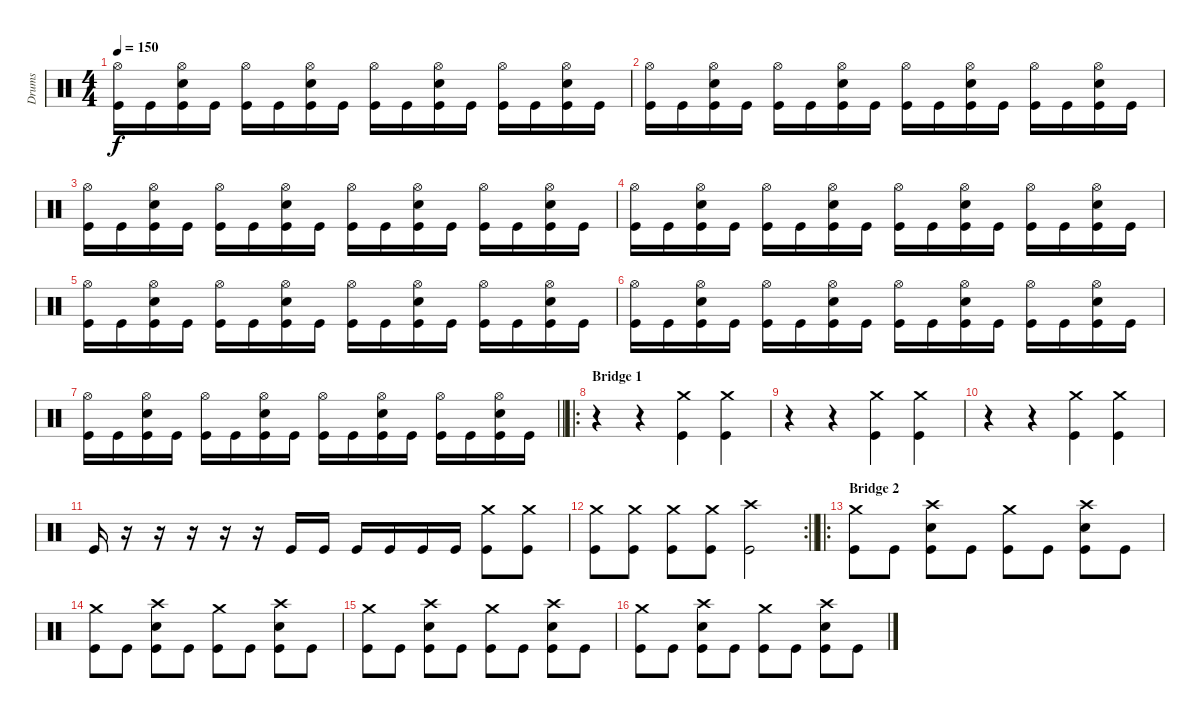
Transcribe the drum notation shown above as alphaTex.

\track ("Drums" "Drums") {instrument percussion}
\staff {score}
\articulation defaults
\ts (4 4)
\tempo 150
\clef neutral
\ks c
("Hi-Hat (open)" "Kick (hit)").16{dy f} "Kick (hit)".16 ("Hi-Hat (open)" "Snare (hit) 2" "Kick (hit)").16 "Kick (hit)".16 ("Hi-Hat (open)" "Kick (hit)").16 "Kick (hit)".16 ("Hi-Hat (open)" "Snare (hit) 2" "Kick (hit)").16 "Kick (hit)".16 ("Hi-Hat (open)" "Kick (hit)").16 "Kick (hit)".16 ("Hi-Hat (open)" "Snare (hit) 2" "Kick (hit)").16 "Kick (hit)".16 ("Hi-Hat (open)" "Kick (hit)").16 "Kick (hit)".16 ("Hi-Hat (open)" "Snare (hit) 2" "Kick (hit)").16 "Kick (hit)".16 |
("Hi-Hat (open)" "Kick (hit)").16 "Kick (hit)".16 ("Hi-Hat (open)" "Snare (hit) 2" "Kick (hit)").16 "Kick (hit)".16 ("Hi-Hat (open)" "Kick (hit)").16 "Kick (hit)".16 ("Hi-Hat (open)" "Snare (hit) 2" "Kick (hit)").16 "Kick (hit)".16 ("Hi-Hat (open)" "Kick (hit)").16 "Kick (hit)".16 ("Hi-Hat (open)" "Snare (hit) 2" "Kick (hit)").16 "Kick (hit)".16 ("Hi-Hat (open)" "Kick (hit)").16 "Kick (hit)".16 ("Hi-Hat (open)" "Snare (hit) 2" "Kick (hit)").16 "Kick (hit)".16 |
("Hi-Hat (open)" "Kick (hit)").16 "Kick (hit)".16 ("Hi-Hat (open)" "Snare (hit) 2" "Kick (hit)").16 "Kick (hit)".16 ("Hi-Hat (open)" "Kick (hit)").16 "Kick (hit)".16 ("Hi-Hat (open)" "Snare (hit) 2" "Kick (hit)").16 "Kick (hit)".16 ("Hi-Hat (open)" "Kick (hit)").16 "Kick (hit)".16 ("Hi-Hat (open)" "Snare (hit) 2" "Kick (hit)").16 "Kick (hit)".16 ("Hi-Hat (open)" "Kick (hit)").16 "Kick (hit)".16 ("Hi-Hat (open)" "Snare (hit) 2" "Kick (hit)").16 "Kick (hit)".16 |
("Hi-Hat (open)" "Kick (hit)").16 "Kick (hit)".16 ("Hi-Hat (open)" "Snare (hit) 2" "Kick (hit)").16 "Kick (hit)".16 ("Hi-Hat (open)" "Kick (hit)").16 "Kick (hit)".16 ("Hi-Hat (open)" "Snare (hit) 2" "Kick (hit)").16 "Kick (hit)".16 ("Hi-Hat (open)" "Kick (hit)").16 "Kick (hit)".16 ("Hi-Hat (open)" "Snare (hit) 2" "Kick (hit)").16 "Kick (hit)".16 ("Hi-Hat (open)" "Kick (hit)").16 "Kick (hit)".16 ("Hi-Hat (open)" "Snare (hit) 2" "Kick (hit)").16 "Kick (hit)".16 |
("Hi-Hat (open)" "Kick (hit)").16 "Kick (hit)".16 ("Hi-Hat (open)" "Snare (hit) 2" "Kick (hit)").16 "Kick (hit)".16 ("Hi-Hat (open)" "Kick (hit)").16 "Kick (hit)".16 ("Hi-Hat (open)" "Snare (hit) 2" "Kick (hit)").16 "Kick (hit)".16 ("Hi-Hat (open)" "Kick (hit)").16 "Kick (hit)".16 ("Hi-Hat (open)" "Snare (hit) 2" "Kick (hit)").16 "Kick (hit)".16 ("Hi-Hat (open)" "Kick (hit)").16 "Kick (hit)".16 ("Hi-Hat (open)" "Snare (hit) 2" "Kick (hit)").16 "Kick (hit)".16 |
("Hi-Hat (open)" "Kick (hit)").16 "Kick (hit)".16 ("Hi-Hat (open)" "Snare (hit) 2" "Kick (hit)").16 "Kick (hit)".16 ("Hi-Hat (open)" "Kick (hit)").16 "Kick (hit)".16 ("Hi-Hat (open)" "Snare (hit) 2" "Kick (hit)").16 "Kick (hit)".16 ("Hi-Hat (open)" "Kick (hit)").16 "Kick (hit)".16 ("Hi-Hat (open)" "Snare (hit) 2" "Kick (hit)").16 "Kick (hit)".16 ("Hi-Hat (open)" "Kick (hit)").16 "Kick (hit)".16 ("Hi-Hat (open)" "Snare (hit) 2" "Kick (hit)").16 "Kick (hit)".16 |
\barLineRight lightlight
("Hi-Hat (open)" "Kick (hit)").16 "Kick (hit)".16 ("Hi-Hat (open)" "Snare (hit) 2" "Kick (hit)").16 "Kick (hit)".16 ("Hi-Hat (open)" "Kick (hit)").16 "Kick (hit)".16 ("Hi-Hat (open)" "Snare (hit) 2" "Kick (hit)").16 "Kick (hit)".16 ("Hi-Hat (open)" "Kick (hit)").16 "Kick (hit)".16 ("Hi-Hat (open)" "Snare (hit) 2" "Kick (hit)").16 "Kick (hit)".16 ("Hi-Hat (open)" "Kick (hit)").16 "Kick (hit)".16 ("Hi-Hat (open)" "Snare (hit) 2" "Kick (hit)").16 "Kick (hit)".16 |
\ro
\section ("" "Bridge 1")
r.4 r.4 ("Crash medium (hit)" "Kick (hit)").4 ("Crash medium (hit)" "Kick (hit)").4 |
r.4 r.4 ("Crash medium (hit)" "Kick (hit)").4 ("Crash medium (hit)" "Kick (hit)").4 |
r.4 r.4 ("Crash medium (hit)" "Kick (hit)").4 ("Crash medium (hit)" "Kick (hit)").4 |
"Kick (hit)".16 r.16 r.16 r.16 r.16 r.16 "Kick (hit)".16 "Kick (hit)".16 "Kick (hit)".16 "Kick (hit)".16 "Kick (hit)".16 "Kick (hit)".16 ("Crash medium (hit)" "Kick (hit)").8 ("Crash medium (hit)" "Kick (hit)").8 |
\rc 2
\barLineRight lightlight
("Crash medium (hit)" "Kick (hit)").8 ("Crash medium (hit)" "Kick (hit)").8 ("Crash medium (hit)" "Kick (hit)").8 ("Crash medium (hit)" "Kick (hit)").8 ("Crash high (hit)" "Kick (hit)").2 |
\ro
\section ("" "Bridge 2")
("Crash medium (hit)" "Kick (hit)").8 "Kick (hit)".8 ("Crash high (hit)" "Snare (hit) 2" "Kick (hit)").8 "Kick (hit)".8 ("Crash medium (hit)" "Kick (hit)").8 "Kick (hit)".8 ("Crash high (hit)" "Snare (hit) 2" "Kick (hit)").8 "Kick (hit)".8 |
("Crash medium (hit)" "Kick (hit)").8 "Kick (hit)".8 ("Crash high (hit)" "Snare (hit) 2" "Kick (hit)").8 "Kick (hit)".8 ("Crash medium (hit)" "Kick (hit)").8 "Kick (hit)".8 ("Crash high (hit)" "Snare (hit) 2" "Kick (hit)").8 "Kick (hit)".8 |
("Crash medium (hit)" "Kick (hit)").8 "Kick (hit)".8 ("Crash high (hit)" "Snare (hit) 2" "Kick (hit)").8 "Kick (hit)".8 ("Crash medium (hit)" "Kick (hit)").8 "Kick (hit)".8 ("Crash high (hit)" "Snare (hit) 2" "Kick (hit)").8 "Kick (hit)".8 |
("Crash medium (hit)" "Kick (hit)").8 "Kick (hit)".8 ("Crash high (hit)" "Snare (hit) 2" "Kick (hit)").8 "Kick (hit)".8 ("Crash medium (hit)" "Kick (hit)").8 "Kick (hit)".8 ("Crash high (hit)" "Snare (hit) 2" "Kick (hit)").8 "Kick (hit)".8
